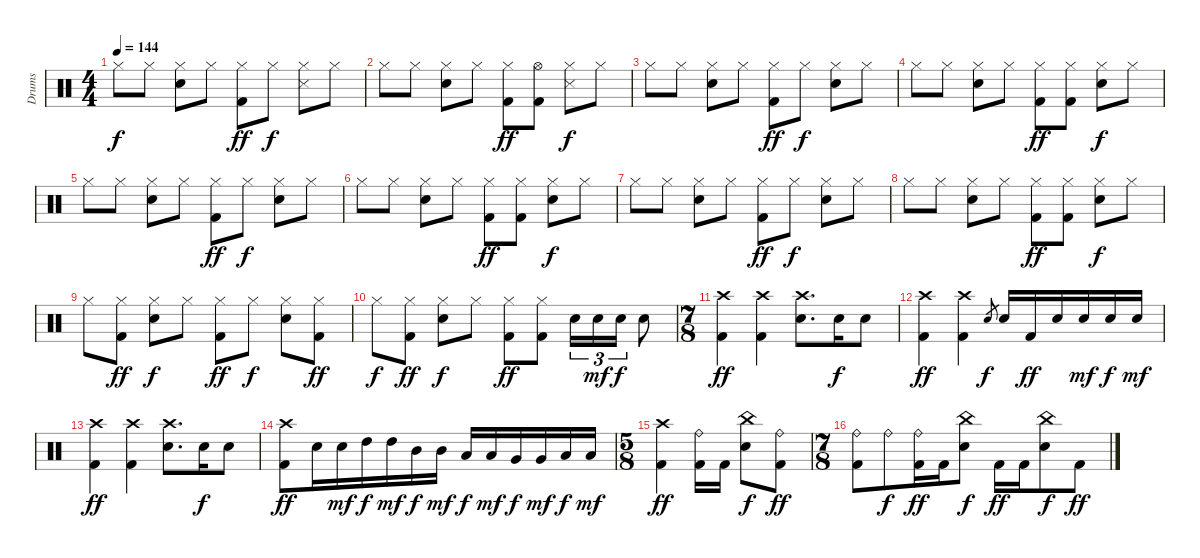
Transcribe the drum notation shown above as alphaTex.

\track ("Drums" "Drums") {instrument percussion}
\staff {score}
\articulation defaults
\ts (4 4)
\tempo 144
\clef neutral
\ks c "Hi-Hat (closed)".8{dy f} "Hi-Hat (closed)".8
("Hi-Hat (closed)" "Snare (hit) 2").8 "Hi-Hat (closed)".8 ("Hi-Hat (closed)" "Kick (hit) 2").8{dy ff} "Hi-Hat (closed)".8{dy f} ("Hi-Hat (closed)" "Snare (side stick) 3").8 "Hi-Hat (closed)".8 |
"Hi-Hat (closed)".8 "Hi-Hat (closed)".8 ("Hi-Hat (closed)" "Snare (hit) 2").8 "Hi-Hat (closed)".8 ("Hi-Hat (closed)" "Kick (hit) 2").8{dy ff} ("Hi-Hat (open)" "Kick (hit) 2").8 ("Hi-Hat (closed)" "Snare (side stick) 3").8{dy f} "Hi-Hat (closed)".8 |
"Hi-Hat (closed)".8 "Hi-Hat (closed)".8 ("Hi-Hat (closed)" "Snare (hit) 2").8 "Hi-Hat (closed)".8 ("Hi-Hat (closed)" "Kick (hit) 2").8{dy ff} "Hi-Hat (closed)".8{dy f} ("Hi-Hat (closed)" "Snare (hit) 2").8 "Hi-Hat (closed)".8 |
"Hi-Hat (closed)".8 "Hi-Hat (closed)".8 ("Hi-Hat (closed)" "Snare (hit) 2").8 "Hi-Hat (closed)".8 ("Hi-Hat (closed)" "Kick (hit) 2").8{dy ff} ("Hi-Hat (closed)" "Kick (hit) 2").8 ("Hi-Hat (closed)" "Snare (hit) 2").8{dy f} "Hi-Hat (closed)".8 |
"Hi-Hat (closed)".8 "Hi-Hat (closed)".8 ("Hi-Hat (closed)" "Snare (hit) 2").8 "Hi-Hat (closed)".8 ("Hi-Hat (closed)" "Kick (hit) 2").8{dy ff} "Hi-Hat (closed)".8{dy f} ("Hi-Hat (closed)" "Snare (hit) 2").8 "Hi-Hat (closed)".8 |
"Hi-Hat (closed)".8 "Hi-Hat (closed)".8 ("Hi-Hat (closed)" "Snare (hit) 2").8 "Hi-Hat (closed)".8 ("Hi-Hat (closed)" "Kick (hit) 2").8{dy ff} ("Hi-Hat (closed)" "Kick (hit) 2").8 ("Hi-Hat (closed)" "Snare (hit) 2").8{dy f} "Hi-Hat (closed)".8 |
"Hi-Hat (closed)".8 "Hi-Hat (closed)".8 ("Hi-Hat (closed)" "Snare (hit) 2").8 "Hi-Hat (closed)".8 ("Hi-Hat (closed)" "Kick (hit) 2").8{dy ff} "Hi-Hat (closed)".8{dy f} ("Hi-Hat (closed)" "Snare (hit) 2").8 "Hi-Hat (closed)".8 |
"Hi-Hat (closed)".8 "Hi-Hat (closed)".8 ("Hi-Hat (closed)" "Snare (hit) 2").8 "Hi-Hat (closed)".8 ("Hi-Hat (closed)" "Kick (hit) 2").8{dy ff} ("Hi-Hat (closed)" "Kick (hit) 2").8 ("Hi-Hat (closed)" "Snare (hit) 2").8{dy f} "Hi-Hat (closed)".8 |
"Hi-Hat (closed)".8 ("Hi-Hat (closed)" "Kick (hit) 2").8{dy ff} ("Hi-Hat (closed)" "Snare (hit) 2").8{dy f} "Hi-Hat (closed)".8 ("Hi-Hat (closed)" "Kick (hit) 2").8{dy ff} "Hi-Hat (closed)".8{dy f} ("Hi-Hat (closed)" "Snare (hit) 2").8 ("Hi-Hat (closed)" "Kick (hit) 2").8{dy ff} |
"Hi-Hat (closed)".8{dy f} ("Hi-Hat (closed)" "Kick (hit) 2").8{dy ff} ("Hi-Hat (closed)" "Snare (hit) 2").8{dy f} "Hi-Hat (closed)".8 ("Hi-Hat (closed)" "Kick (hit) 2").8{dy ff} ("Hi-Hat (closed)" "Kick (hit) 2").8 "Snare (hit) 2".16{tu (3 2)} "Snare (hit) 2".16{tu (3 2) dy mf} "Snare (hit) 2".16{tu (3 2) dy f} "Snare (hit) 2".8 |
\ts (7 8)
("Crash high (hit)" "Kick (hit) 2").4{dy ff} ("Crash high (hit)" "Kick (hit) 2").4 ("Crash high (hit)" "Snare (hit) 2").8{d} "Snare (hit) 2".16{dy f} "Snare (hit) 2".8 |
("Crash high (hit)" "Kick (hit) 2").4{dy ff} ("Crash high (hit)" "Kick (hit) 2").4 "Snare (hit) 2".8{gr dy f} "Snare (hit) 2".16 "Kick (hit) 2".16{dy ff} "Snare (hit) 2".16 "Snare (hit) 2".16{dy mf} "Snare (hit) 2".16{dy f} "Snare (hit) 2".16{dy mf} |
("Crash high (hit)" "Kick (hit) 2").4{dy ff} ("Crash high (hit)" "Kick (hit) 2").4 ("Crash high (hit)" "Snare (hit) 2").8{d} "Snare (hit) 2".16{dy f} "Snare (hit) 2".8 |
("Crash high (hit)" "Kick (hit) 2").8{dy ff} "Snare (hit) 2".16 "Snare (hit) 2".16{dy mf} "High Tom (hit)".16{dy f} "High Tom (hit)".16{dy mf} "Mid Tom (hit)".16{dy f} "Mid Tom (hit)".16{dy mf} "Low Tom (hit)".16{dy f} "Low Tom (hit)".16{dy mf} "Very Low Tom (hit)".16{dy f} "Very Low Tom (hit)".16{dy mf} "Low Floor Tom (hit)".16{dy f} "Low Floor Tom (hit)".16{dy mf} |
\ts (5 8)
("Crash high (hit)" "Kick (hit) 2").4{dy ff} ("Ride (bell)" "Kick (hit) 2").16 "Kick (hit) 2".16 ("China (hit)" "Snare (hit) 2").8{dy f} ("Ride (bell)" "Kick (hit) 2").8{dy ff} |
\ts (7 8)
("Ride (bell)" "Kick (hit) 2").8 "Ride (bell)".8{dy f} ("Ride (bell)" "Kick (hit) 2").16{dy ff} "Kick (hit) 2".16 ("China (hit)" "Snare (hit) 2").8{dy f} "Kick (hit) 2".16{dy ff} "Kick (hit) 2".16 ("China (hit)" "Snare (hit) 2").8{dy f} "Kick (hit) 2".8{dy ff}
